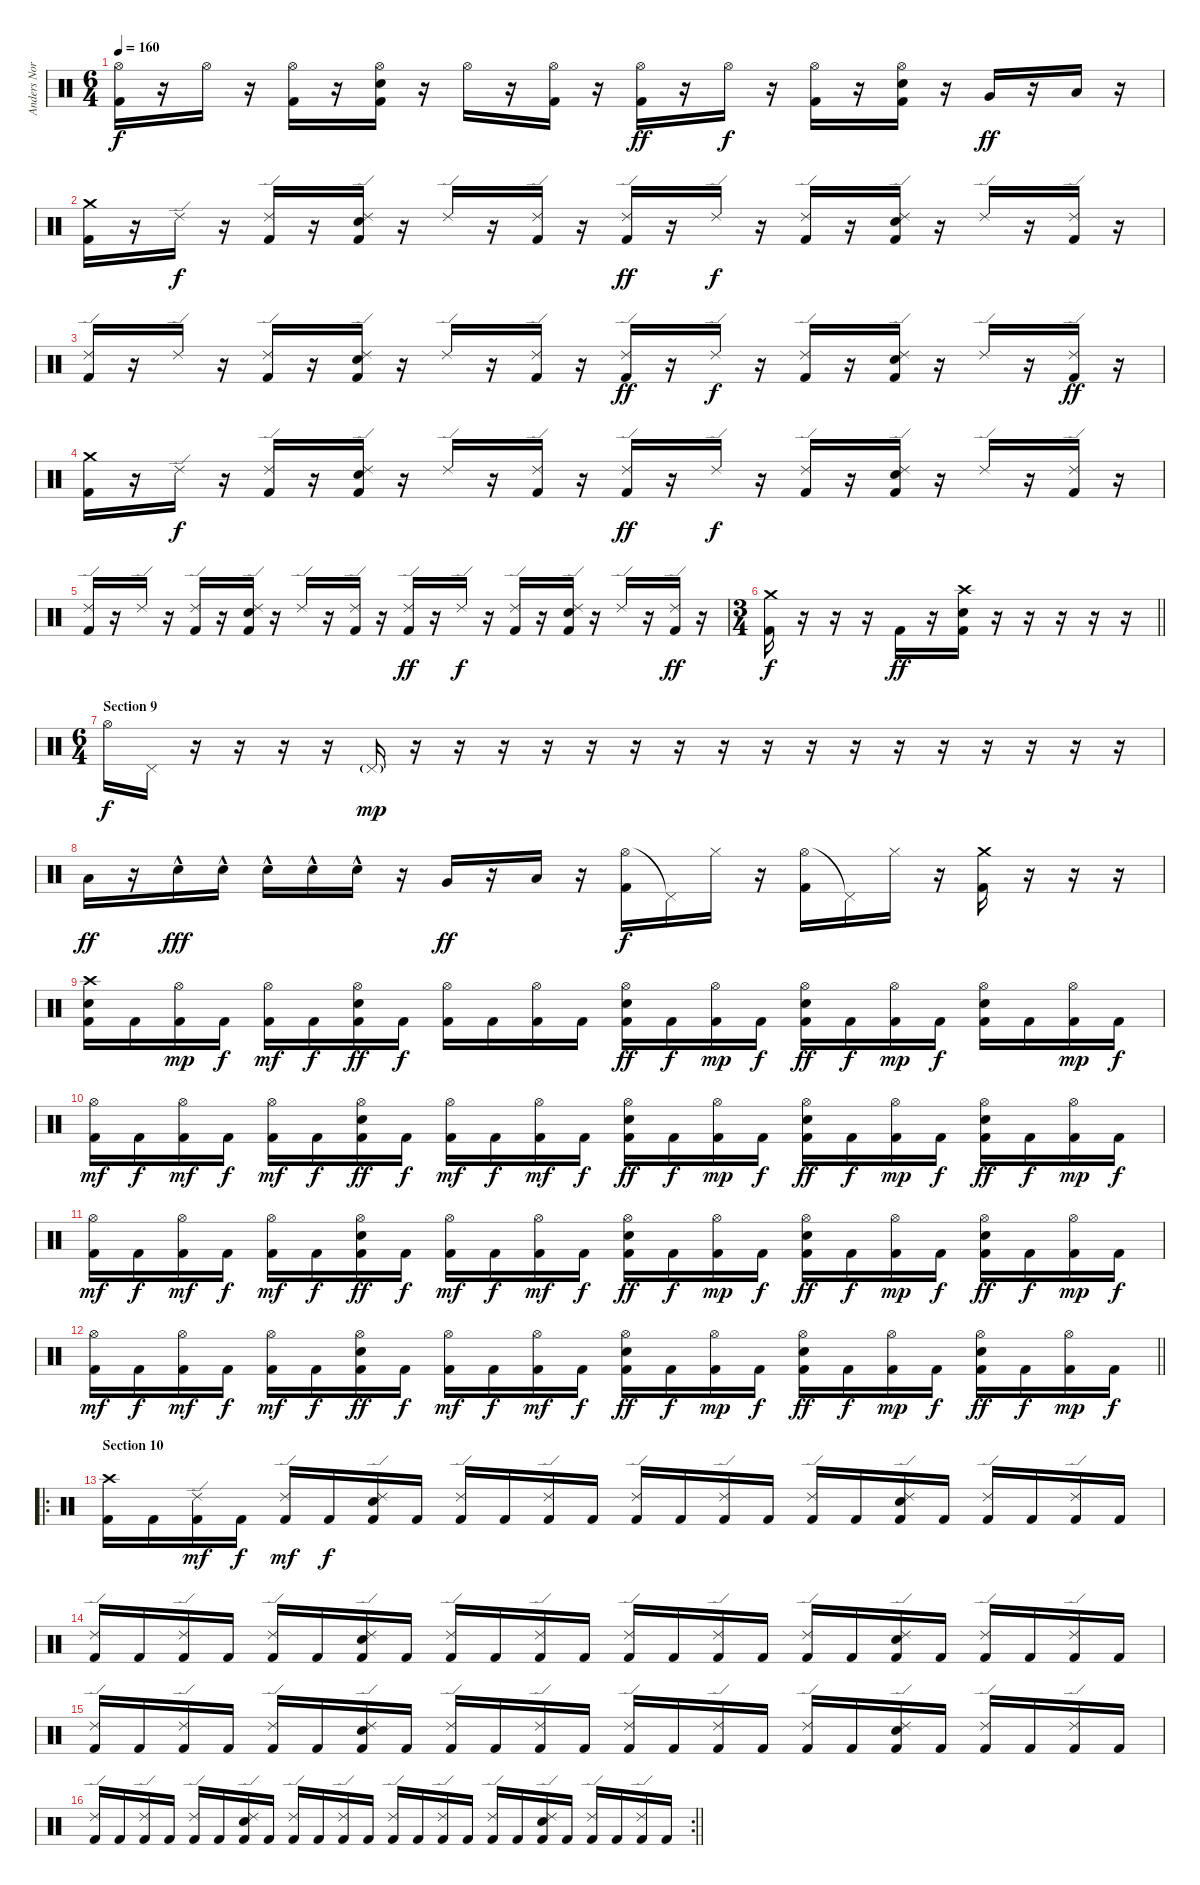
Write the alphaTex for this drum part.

\track ("Anders Nordin" "Anders Nor") {instrument percussion}
\staff {score}
\articulation defaults
\ts (6 4)
\tempo 160
\clef neutral
\ks c
("Hi-Hat (open)" "Kick (hit) 2").16{dy f} r.16 "Hi-Hat (open)".16 r.16 ("Hi-Hat (open)" "Kick (hit) 2").16 r.16 ("Hi-Hat (open)" "Snare (hit) 2" "Kick (hit) 2").16 r.16 "Hi-Hat (open)".16 r.16 ("Hi-Hat (open)" "Kick (hit) 2").16 r.16 ("Hi-Hat (open)" "Kick (hit) 2").16{dy ff} r.16 "Hi-Hat (open)".16{dy f} r.16 ("Hi-Hat (open)" "Kick (hit) 2").16 r.16 ("Hi-Hat (open)" "Snare (hit) 2" "Kick (hit) 2").16 r.16 "Very Low Tom (hit)".16{dy ff} r.16 "Low Floor Tom (hit)".16 r.16 |
("Crash medium (hit)" "Kick (hit) 2").16 r.16 "Ride (edge) 2".16{dy f} r.16 ("Ride (edge) 2" "Kick (hit) 2").16 r.16 ("Ride (edge) 2" "Snare (hit) 2" "Kick (hit) 2").16 r.16 "Ride (edge) 2".16 r.16 ("Ride (edge) 2" "Kick (hit) 2").16 r.16 ("Ride (edge) 2" "Kick (hit) 2").16{dy ff} r.16 "Ride (edge) 2".16{dy f} r.16 ("Ride (edge) 2" "Kick (hit) 2").16 r.16 ("Ride (edge) 2" "Snare (hit) 2" "Kick (hit) 2").16 r.16 "Ride (edge) 2".16 r.16 ("Ride (edge) 2" "Kick (hit) 2").16 r.16 |
("Ride (edge) 2" "Kick (hit) 2").16 r.16 "Ride (edge) 2".16 r.16 ("Ride (edge) 2" "Kick (hit) 2").16 r.16 ("Ride (edge) 2" "Snare (hit) 2" "Kick (hit) 2").16 r.16 "Ride (edge) 2".16 r.16 ("Ride (edge) 2" "Kick (hit) 2").16 r.16 ("Ride (edge) 2" "Kick (hit) 2").16{dy ff} r.16 "Ride (edge) 2".16{dy f} r.16 ("Ride (edge) 2" "Kick (hit) 2").16 r.16 ("Ride (edge) 2" "Snare (hit) 2" "Kick (hit) 2").16 r.16 "Ride (edge) 2".16 r.16 ("Ride (edge) 2" "Kick (hit) 2").16{dy ff} r.16 |
("Crash medium (hit)" "Kick (hit) 2").16 r.16 "Ride (edge) 2".16{dy f} r.16 ("Ride (edge) 2" "Kick (hit) 2").16 r.16 ("Ride (edge) 2" "Snare (hit) 2" "Kick (hit) 2").16 r.16 "Ride (edge) 2".16 r.16 ("Ride (edge) 2" "Kick (hit) 2").16 r.16 ("Ride (edge) 2" "Kick (hit) 2").16{dy ff} r.16 "Ride (edge) 2".16{dy f} r.16 ("Ride (edge) 2" "Kick (hit) 2").16 r.16 ("Ride (edge) 2" "Snare (hit) 2" "Kick (hit) 2").16 r.16 "Ride (edge) 2".16 r.16 ("Ride (edge) 2" "Kick (hit) 2").16 r.16 |
("Ride (edge) 2" "Kick (hit) 2").16 r.16 "Ride (edge) 2".16 r.16 ("Ride (edge) 2" "Kick (hit) 2").16 r.16 ("Ride (edge) 2" "Snare (hit) 2" "Kick (hit) 2").16 r.16 "Ride (edge) 2".16 r.16 ("Ride (edge) 2" "Kick (hit) 2").16 r.16 ("Ride (edge) 2" "Kick (hit) 2").16{dy ff} r.16 "Ride (edge) 2".16{dy f} r.16 ("Ride (edge) 2" "Kick (hit) 2").16 r.16 ("Ride (edge) 2" "Snare (hit) 2" "Kick (hit) 2").16 r.16 "Ride (edge) 2".16 r.16 ("Ride (edge) 2" "Kick (hit) 2").16{dy ff} r.16 |
\ts (3 4)
\barLineRight lightlight
("Crash medium (hit)" "Kick (hit) 2").16{dy f} r.16 r.16 r.16 "Kick (hit) 2".16{dy ff} r.16 ("Crash high (hit)" "Snare (hit) 2" "Kick (hit) 2").16 r.16 r.16 r.16 r.16 r.16 |
\ts (6 4)
\section ("" "Section 9")
"Hi-Hat (open)".16{dy f} "Pedal Hi-Hat (hit)".16 r.16 r.16 r.16 r.16 "Pedal Hi-Hat (hit)"{g}.16{dy mp} r.16 r.16 r.16 r.16 r.16 r.16 r.16 r.16 r.16 r.16 r.16 r.16 r.16 r.16 r.16 r.16 r.16 |
"Low Floor Tom (hit)".16{dy ff} r.16 "Snare (hit) 2"{hac}.16{dy fff} "Snare (hit) 2"{hac}.16 "Snare (hit) 2"{hac}.16 "Snare (hit) 2"{hac}.16 "Snare (hit) 2"{hac}.16 r.16 "Very Low Tom (hit)".16{dy ff} r.16 "Low Floor Tom (hit)".16 r.16 ("Hi-Hat (open)" "Kick (hit) 2").16{dy f} "Pedal Hi-Hat (hit)"{t}.16 "Hi-Hat (closed)".16 r.16 ("Hi-Hat (open)" "Kick (hit) 2").16 "Pedal Hi-Hat (hit)"{t}.16 "Hi-Hat (closed)".16 r.16 ("Crash medium (hit)" "Kick (hit) 2").16 r.16 r.16 r.16 |
("Crash high (hit)" "Snare (hit) 2" "Kick (hit) 2").16 "Kick (hit) 2".16 ("Hi-Hat (open)" "Kick (hit) 2").16{dy mp} "Kick (hit) 2".16{dy f} ("Hi-Hat (open)" "Kick (hit) 2").16{dy mf} "Kick (hit) 2".16{dy f} ("Hi-Hat (open)" "Snare (hit) 2" "Kick (hit) 2").16{dy ff} "Kick (hit) 2".16{dy f} ("Hi-Hat (open)" "Kick (hit) 2").16 "Kick (hit) 2".16 ("Hi-Hat (open)" "Kick (hit) 2").16 "Kick (hit) 2".16 ("Hi-Hat (open)" "Snare (hit) 2" "Kick (hit) 2").16{dy ff} "Kick (hit) 2".16{dy f} ("Hi-Hat (open)" "Kick (hit) 2").16{dy mp} "Kick (hit) 2".16{dy f} ("Hi-Hat (open)" "Snare (hit) 2" "Kick (hit) 2").16{dy ff} "Kick (hit) 2".16{dy f} ("Hi-Hat (open)" "Kick (hit) 2").16{dy mp} "Kick (hit) 2".16{dy f} ("Hi-Hat (open)" "Snare (hit) 2" "Kick (hit) 2").16 "Kick (hit) 2".16 ("Hi-Hat (open)" "Kick (hit) 2").16{dy mp} "Kick (hit) 2".16{dy f} |
("Hi-Hat (open)" "Kick (hit) 2").16{dy mf} "Kick (hit) 2".16{dy f} ("Hi-Hat (open)" "Kick (hit) 2").16{dy mf} "Kick (hit) 2".16{dy f} ("Hi-Hat (open)" "Kick (hit) 2").16{dy mf} "Kick (hit) 2".16{dy f} ("Hi-Hat (open)" "Snare (hit) 2" "Kick (hit) 2").16{dy ff} "Kick (hit) 2".16{dy f} ("Hi-Hat (open)" "Kick (hit) 2").16{dy mf} "Kick (hit) 2".16{dy f} ("Hi-Hat (open)" "Kick (hit) 2").16{dy mf} "Kick (hit) 2".16{dy f} ("Hi-Hat (open)" "Snare (hit) 2" "Kick (hit) 2").16{dy ff} "Kick (hit) 2".16{dy f} ("Hi-Hat (open)" "Kick (hit) 2").16{dy mp} "Kick (hit) 2".16{dy f} ("Hi-Hat (open)" "Snare (hit) 2" "Kick (hit) 2").16{dy ff} "Kick (hit) 2".16{dy f} ("Hi-Hat (open)" "Kick (hit) 2").16{dy mp} "Kick (hit) 2".16{dy f} ("Hi-Hat (open)" "Snare (hit) 2" "Kick (hit) 2").16{dy ff} "Kick (hit) 2".16{dy f} ("Hi-Hat (open)" "Kick (hit) 2").16{dy mp} "Kick (hit) 2".16{dy f} |
("Hi-Hat (open)" "Kick (hit) 2").16{dy mf} "Kick (hit) 2".16{dy f} ("Hi-Hat (open)" "Kick (hit) 2").16{dy mf} "Kick (hit) 2".16{dy f} ("Hi-Hat (open)" "Kick (hit) 2").16{dy mf} "Kick (hit) 2".16{dy f} ("Hi-Hat (open)" "Snare (hit) 2" "Kick (hit) 2").16{dy ff} "Kick (hit) 2".16{dy f} ("Hi-Hat (open)" "Kick (hit) 2").16{dy mf} "Kick (hit) 2".16{dy f} ("Hi-Hat (open)" "Kick (hit) 2").16{dy mf} "Kick (hit) 2".16{dy f} ("Hi-Hat (open)" "Snare (hit) 2" "Kick (hit) 2").16{dy ff} "Kick (hit) 2".16{dy f} ("Hi-Hat (open)" "Kick (hit) 2").16{dy mp} "Kick (hit) 2".16{dy f} ("Hi-Hat (open)" "Snare (hit) 2" "Kick (hit) 2").16{dy ff} "Kick (hit) 2".16{dy f} ("Hi-Hat (open)" "Kick (hit) 2").16{dy mp} "Kick (hit) 2".16{dy f} ("Hi-Hat (open)" "Snare (hit) 2" "Kick (hit) 2").16{dy ff} "Kick (hit) 2".16{dy f} ("Hi-Hat (open)" "Kick (hit) 2").16{dy mp} "Kick (hit) 2".16{dy f} |
\barLineRight lightlight
("Hi-Hat (open)" "Kick (hit) 2").16{dy mf} "Kick (hit) 2".16{dy f} ("Hi-Hat (open)" "Kick (hit) 2").16{dy mf} "Kick (hit) 2".16{dy f} ("Hi-Hat (open)" "Kick (hit) 2").16{dy mf} "Kick (hit) 2".16{dy f} ("Hi-Hat (open)" "Snare (hit) 2" "Kick (hit) 2").16{dy ff} "Kick (hit) 2".16{dy f} ("Hi-Hat (open)" "Kick (hit) 2").16{dy mf} "Kick (hit) 2".16{dy f} ("Hi-Hat (open)" "Kick (hit) 2").16{dy mf} "Kick (hit) 2".16{dy f} ("Hi-Hat (open)" "Snare (hit) 2" "Kick (hit) 2").16{dy ff} "Kick (hit) 2".16{dy f} ("Hi-Hat (open)" "Kick (hit) 2").16{dy mp} "Kick (hit) 2".16{dy f} ("Hi-Hat (open)" "Snare (hit) 2" "Kick (hit) 2").16{dy ff} "Kick (hit) 2".16{dy f} ("Hi-Hat (open)" "Kick (hit) 2").16{dy mp} "Kick (hit) 2".16{dy f} ("Hi-Hat (open)" "Snare (hit) 2" "Kick (hit) 2").16{dy ff} "Kick (hit) 2".16{dy f} ("Hi-Hat (open)" "Kick (hit) 2").16{dy mp} "Kick (hit) 2".16{dy f} |
\ro
\section ("" "Section 10")
("Crash high (hit)" "Kick (hit) 2").16 "Kick (hit) 2".16 ("Ride (edge) 2" "Kick (hit) 2").16{dy mf} "Kick (hit) 2".16{dy f} ("Ride (edge) 2" "Kick (hit) 2").16{dy mf} "Kick (hit) 2".16{dy f} ("Ride (edge) 2" "Snare (hit) 2" "Kick (hit) 2").16 "Kick (hit) 2".16 ("Ride (edge) 2" "Kick (hit) 2").16 "Kick (hit) 2".16 ("Ride (edge) 2" "Kick (hit) 2").16 "Kick (hit) 2".16 ("Ride (edge) 2" "Kick (hit) 2").16 "Kick (hit) 2".16 ("Ride (edge) 2" "Kick (hit) 2").16 "Kick (hit) 2".16 ("Ride (edge) 2" "Kick (hit) 2").16 "Kick (hit) 2".16 ("Ride (edge) 2" "Snare (hit) 2" "Kick (hit) 2").16 "Kick (hit) 2".16 ("Ride (edge) 2" "Kick (hit) 2").16 "Kick (hit) 2".16 ("Ride (edge) 2" "Kick (hit) 2").16 "Kick (hit) 2".16 |
("Ride (edge) 2" "Kick (hit) 2").16 "Kick (hit) 2".16 ("Ride (edge) 2" "Kick (hit) 2").16 "Kick (hit) 2".16 ("Ride (edge) 2" "Kick (hit) 2").16 "Kick (hit) 2".16 ("Ride (edge) 2" "Snare (hit) 2" "Kick (hit) 2").16 "Kick (hit) 2".16 ("Ride (edge) 2" "Kick (hit) 2").16 "Kick (hit) 2".16 ("Ride (edge) 2" "Kick (hit) 2").16 "Kick (hit) 2".16 ("Ride (edge) 2" "Kick (hit) 2").16 "Kick (hit) 2".16 ("Ride (edge) 2" "Kick (hit) 2").16 "Kick (hit) 2".16 ("Ride (edge) 2" "Kick (hit) 2").16 "Kick (hit) 2".16 ("Ride (edge) 2" "Snare (hit) 2" "Kick (hit) 2").16 "Kick (hit) 2".16 ("Ride (edge) 2" "Kick (hit) 2").16 "Kick (hit) 2".16 ("Ride (edge) 2" "Kick (hit) 2").16 "Kick (hit) 2".16 |
("Ride (edge) 2" "Kick (hit) 2").16 "Kick (hit) 2".16 ("Ride (edge) 2" "Kick (hit) 2").16 "Kick (hit) 2".16 ("Ride (edge) 2" "Kick (hit) 2").16 "Kick (hit) 2".16 ("Ride (edge) 2" "Snare (hit) 2" "Kick (hit) 2").16 "Kick (hit) 2".16 ("Ride (edge) 2" "Kick (hit) 2").16 "Kick (hit) 2".16 ("Ride (edge) 2" "Kick (hit) 2").16 "Kick (hit) 2".16 ("Ride (edge) 2" "Kick (hit) 2").16 "Kick (hit) 2".16 ("Ride (edge) 2" "Kick (hit) 2").16 "Kick (hit) 2".16 ("Ride (edge) 2" "Kick (hit) 2").16 "Kick (hit) 2".16 ("Ride (edge) 2" "Snare (hit) 2" "Kick (hit) 2").16 "Kick (hit) 2".16 ("Ride (edge) 2" "Kick (hit) 2").16 "Kick (hit) 2".16 ("Ride (edge) 2" "Kick (hit) 2").16 "Kick (hit) 2".16 |
\rc 2
\barLineRight lightlight
("Ride (edge) 2" "Kick (hit) 2").16 "Kick (hit) 2".16 ("Ride (edge) 2" "Kick (hit) 2").16 "Kick (hit) 2".16 ("Ride (edge) 2" "Kick (hit) 2").16 "Kick (hit) 2".16 ("Ride (edge) 2" "Snare (hit) 2" "Kick (hit) 2").16 "Kick (hit) 2".16 ("Ride (edge) 2" "Kick (hit) 2").16 "Kick (hit) 2".16 ("Ride (edge) 2" "Kick (hit) 2").16 "Kick (hit) 2".16 ("Ride (edge) 2" "Kick (hit) 2").16 "Kick (hit) 2".16 ("Ride (edge) 2" "Kick (hit) 2").16 "Kick (hit) 2".16 ("Ride (edge) 2" "Kick (hit) 2").16 "Kick (hit) 2".16 ("Ride (edge) 2" "Snare (hit) 2" "Kick (hit) 2").16 "Kick (hit) 2".16 ("Ride (edge) 2" "Kick (hit) 2").16 "Kick (hit) 2".16 ("Ride (edge) 2" "Kick (hit) 2").16 "Kick (hit) 2".16
